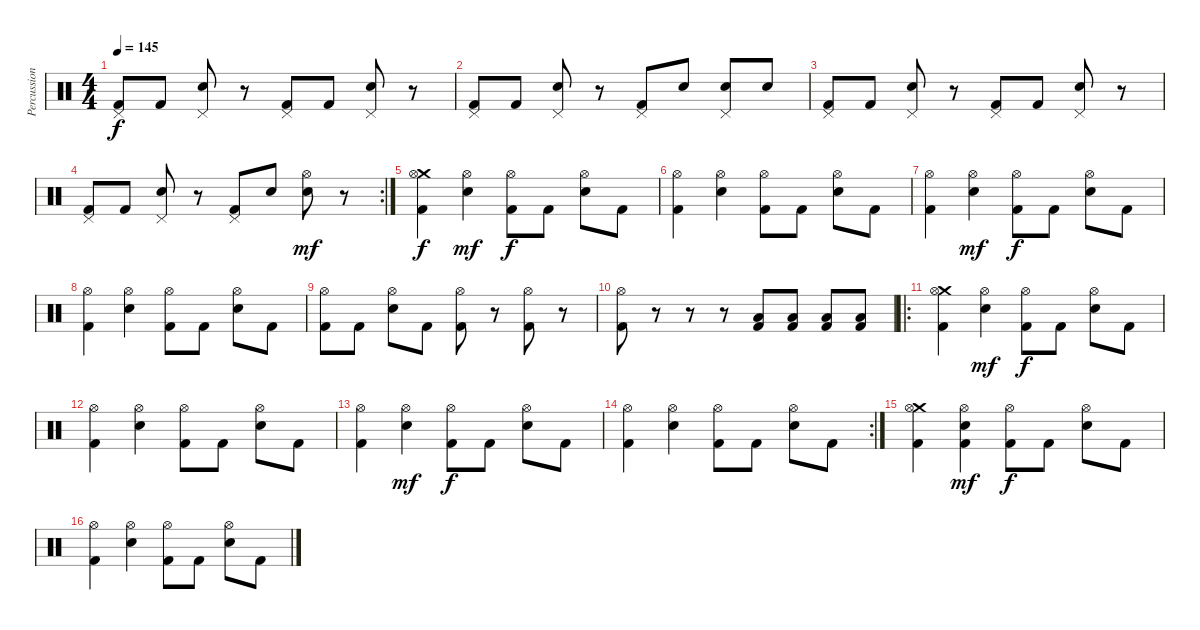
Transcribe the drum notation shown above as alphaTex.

\track ("Percussion" "Percussion") {instrument percussion}
\staff {score}
\articulation defaults
\ts (4 4)
\tempo 145
\clef neutral
\ks c
("Pedal Hi-Hat (hit)" "Kick (hit) 2").8{dy f} "Kick (hit) 2".8 ("Pedal Hi-Hat (hit)" "Electric Snare (hit)").8 r.8 ("Pedal Hi-Hat (hit)" "Kick (hit) 2").8 "Kick (hit) 2".8 ("Pedal Hi-Hat (hit)" "Electric Snare (hit)").8 r.8 |
("Pedal Hi-Hat (hit)" "Kick (hit) 2").8 "Kick (hit) 2".8 ("Pedal Hi-Hat (hit)" "Electric Snare (hit)").8 r.8 ("Pedal Hi-Hat (hit)" "Kick (hit) 2").8 "Electric Snare (hit)".8 ("Pedal Hi-Hat (hit)" "Electric Snare (hit)").8 "Electric Snare (hit)".8 |
("Pedal Hi-Hat (hit)" "Kick (hit) 2").8 "Kick (hit) 2".8 ("Pedal Hi-Hat (hit)" "Electric Snare (hit)").8 r.8 ("Pedal Hi-Hat (hit)" "Kick (hit) 2").8 "Kick (hit) 2".8 ("Pedal Hi-Hat (hit)" "Electric Snare (hit)").8 r.8 |
\rc 2
("Pedal Hi-Hat (hit)" "Kick (hit) 2").8 "Kick (hit) 2".8 ("Pedal Hi-Hat (hit)" "Electric Snare (hit)").8 r.8 ("Pedal Hi-Hat (hit)" "Kick (hit) 2").8 "Electric Snare (hit)".8 ("Hi-Hat (open)" "Electric Snare (hit)").8{dy mf} r.8 |
("Crash medium (hit)" "Hi-Hat (open)" "Kick (hit) 2").4{dy f} ("Hi-Hat (open)" "Electric Snare (hit)").4{dy mf} ("Hi-Hat (open)" "Kick (hit) 2").8{dy f} "Kick (hit) 2".8 ("Hi-Hat (open)" "Electric Snare (hit)").8 "Kick (hit) 2".8 |
("Hi-Hat (open)" "Kick (hit) 2").4 ("Hi-Hat (open)" "Electric Snare (hit)").4 ("Hi-Hat (open)" "Kick (hit) 2").8 "Kick (hit) 2".8 ("Hi-Hat (open)" "Electric Snare (hit)").8 "Kick (hit) 2".8 |
("Hi-Hat (open)" "Kick (hit) 2").4 ("Hi-Hat (open)" "Electric Snare (hit)").4{dy mf} ("Hi-Hat (open)" "Kick (hit) 2").8{dy f} "Kick (hit) 2".8 ("Hi-Hat (open)" "Electric Snare (hit)").8 "Kick (hit) 2".8 |
("Hi-Hat (open)" "Kick (hit) 2").4 ("Hi-Hat (open)" "Electric Snare (hit)").4 ("Hi-Hat (open)" "Kick (hit) 2").8 "Kick (hit) 2".8 ("Hi-Hat (open)" "Electric Snare (hit)").8 "Kick (hit) 2".8 |
("Hi-Hat (open)" "Kick (hit) 2").8 "Kick (hit) 2".8 ("Hi-Hat (open)" "Electric Snare (hit)").8 "Kick (hit) 2".8 ("Hi-Hat (open)" "Kick (hit) 2").8 r.8 ("Hi-Hat (open)" "Kick (hit) 2").8 r.8 |
("Hi-Hat (open)" "Kick (hit) 2").8 r.8 r.8 r.8 ("Low Floor Tom (hit)" "Kick (hit) 2").8 ("Low Floor Tom (hit)" "Kick (hit) 2").8 ("Low Floor Tom (hit)" "Kick (hit) 2").8 ("Low Floor Tom (hit)" "Kick (hit) 2").8 |
\ro
("Crash medium (hit)" "Hi-Hat (open)" "Kick (hit) 2").4 ("Hi-Hat (open)" "Electric Snare (hit)").4{dy mf} ("Hi-Hat (open)" "Kick (hit) 2").8{dy f} "Kick (hit) 2".8 ("Hi-Hat (open)" "Electric Snare (hit)").8 "Kick (hit) 2".8 |
("Hi-Hat (open)" "Kick (hit) 2").4 ("Hi-Hat (open)" "Electric Snare (hit)").4 ("Hi-Hat (open)" "Kick (hit) 2").8 "Kick (hit) 2".8 ("Hi-Hat (open)" "Electric Snare (hit)").8 "Kick (hit) 2".8 |
("Hi-Hat (open)" "Kick (hit) 2").4 ("Hi-Hat (open)" "Electric Snare (hit)").4{dy mf} ("Hi-Hat (open)" "Kick (hit) 2").8{dy f} "Kick (hit) 2".8 ("Hi-Hat (open)" "Electric Snare (hit)").8 "Kick (hit) 2".8 |
\rc 2
("Hi-Hat (open)" "Kick (hit) 2").4 ("Hi-Hat (open)" "Electric Snare (hit)").4 ("Hi-Hat (open)" "Kick (hit) 2").8 "Kick (hit) 2".8 ("Hi-Hat (open)" "Electric Snare (hit)").8 "Kick (hit) 2".8 |
("Crash medium (hit)" "Hi-Hat (open)" "Kick (hit) 2").4 ("Hi-Hat (open)" "Electric Snare (hit)" "Kick (hit) 2").4{dy mf} ("Hi-Hat (open)" "Kick (hit) 2").8{dy f} "Kick (hit) 2".8 ("Hi-Hat (open)" "Electric Snare (hit)").8 "Kick (hit) 2".8 |
("Hi-Hat (open)" "Kick (hit) 2").4 ("Hi-Hat (open)" "Electric Snare (hit)").4 ("Hi-Hat (open)" "Kick (hit) 2").8 "Kick (hit) 2".8 ("Hi-Hat (open)" "Electric Snare (hit)").8 "Kick (hit) 2".8
